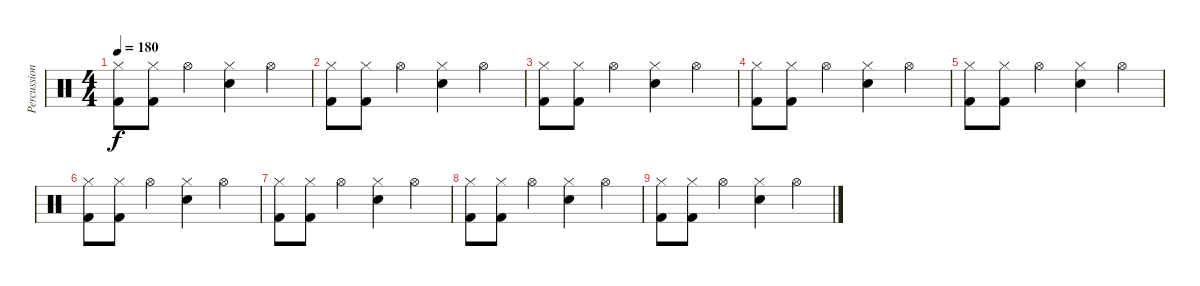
\track ("Percussions" "Percussion") {instrument percussion}
\staff {score}
\articulation defaults
\ts (4 4)
\tempo 180
\clef neutral
\ks c
("Hi-Hat (closed)" "Kick (hit) 2").8{dy f} ("Hi-Hat (closed)" "Kick (hit) 2").8 "Hi-Hat (open)".4 ("Hi-Hat (closed)" "Snare (hit) 2").4 "Hi-Hat (open)".4 |
("Hi-Hat (closed)" "Kick (hit) 2").8 ("Hi-Hat (closed)" "Kick (hit) 2").8 "Hi-Hat (open)".4 ("Hi-Hat (closed)" "Snare (hit) 2").4 "Hi-Hat (open)".4 |
("Hi-Hat (closed)" "Kick (hit) 2").8 ("Hi-Hat (closed)" "Kick (hit) 2").8 "Hi-Hat (open)".4 ("Hi-Hat (closed)" "Snare (hit) 2").4 "Hi-Hat (open)".4 |
("Hi-Hat (closed)" "Kick (hit) 2").8 ("Hi-Hat (closed)" "Kick (hit) 2").8 "Hi-Hat (open)".4 ("Hi-Hat (closed)" "Snare (hit) 2").4 "Hi-Hat (open)".4 |
("Hi-Hat (closed)" "Kick (hit) 2").8 ("Hi-Hat (closed)" "Kick (hit) 2").8 "Hi-Hat (open)".4 ("Hi-Hat (closed)" "Snare (hit) 2").4 "Hi-Hat (open)".4 |
("Hi-Hat (closed)" "Kick (hit) 2").8 ("Hi-Hat (closed)" "Kick (hit) 2").8 "Hi-Hat (open)".4 ("Hi-Hat (closed)" "Snare (hit) 2").4 "Hi-Hat (open)".4 |
("Hi-Hat (closed)" "Kick (hit) 2").8 ("Hi-Hat (closed)" "Kick (hit) 2").8 "Hi-Hat (open)".4 ("Hi-Hat (closed)" "Snare (hit) 2").4 "Hi-Hat (open)".4 |
("Hi-Hat (closed)" "Kick (hit) 2").8 ("Hi-Hat (closed)" "Kick (hit) 2").8 "Hi-Hat (open)".4 ("Hi-Hat (closed)" "Snare (hit) 2").4 "Hi-Hat (open)".4 |
("Hi-Hat (closed)" "Kick (hit) 2").8 ("Hi-Hat (closed)" "Kick (hit) 2").8 "Hi-Hat (open)".4 ("Hi-Hat (closed)" "Snare (hit) 2").4 "Hi-Hat (open)".4
